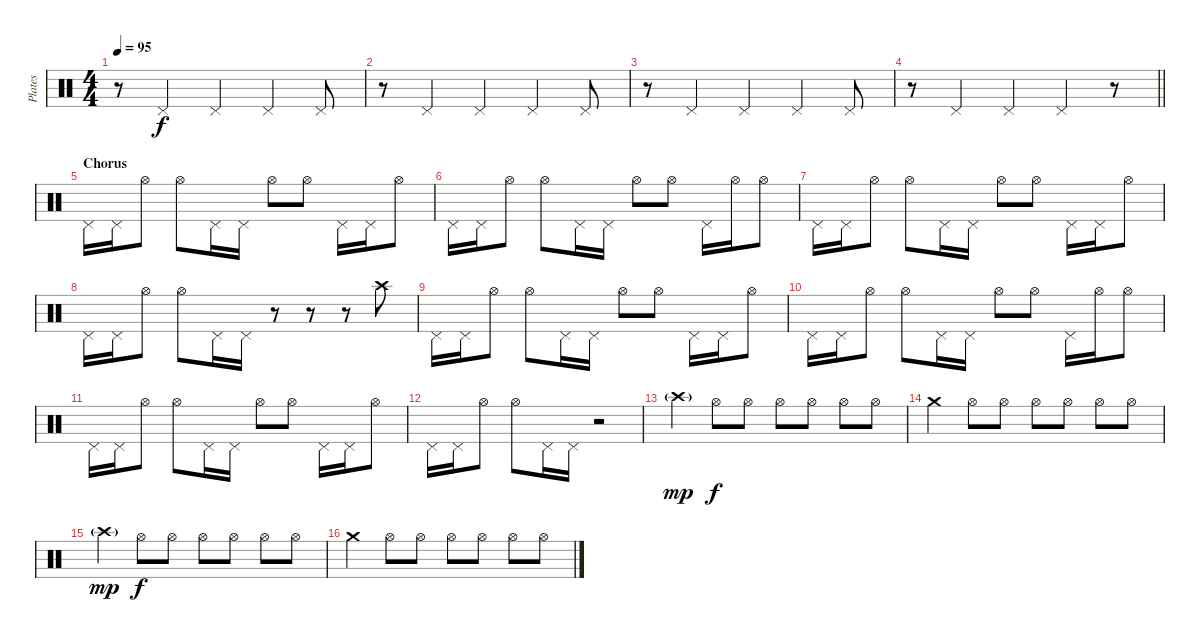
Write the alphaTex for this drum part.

\track ("Plates" "Plates") {instrument percussion}
\staff {score}
\articulation defaults
\ts (4 4)
\tempo 95
\clef neutral
\ks c
r.8{dy f} "Pedal Hi-Hat (hit)".4 "Pedal Hi-Hat (hit)".4 "Pedal Hi-Hat (hit)".4 "Pedal Hi-Hat (hit)".8 |
r.8 "Pedal Hi-Hat (hit)".4 "Pedal Hi-Hat (hit)".4 "Pedal Hi-Hat (hit)".4 "Pedal Hi-Hat (hit)".8 |
r.8 "Pedal Hi-Hat (hit)".4 "Pedal Hi-Hat (hit)".4 "Pedal Hi-Hat (hit)".4 "Pedal Hi-Hat (hit)".8 |
\barLineRight lightlight
r.8 "Pedal Hi-Hat (hit)".4 "Pedal Hi-Hat (hit)".4 "Pedal Hi-Hat (hit)".4 r.8 |
\section ("" "Chorus")
"Pedal Hi-Hat (hit)".16 "Pedal Hi-Hat (hit)".16 "Hi-Hat (open)".8 "Hi-Hat (open)".8 "Pedal Hi-Hat (hit)".16 "Pedal Hi-Hat (hit)".16 "Hi-Hat (open)".8 "Hi-Hat (open)".8 "Pedal Hi-Hat (hit)".16 "Pedal Hi-Hat (hit)".16 "Hi-Hat (open)".8 |
"Pedal Hi-Hat (hit)".16 "Pedal Hi-Hat (hit)".16 "Hi-Hat (open)".8 "Hi-Hat (open)".8 "Pedal Hi-Hat (hit)".16 "Pedal Hi-Hat (hit)".16 "Hi-Hat (open)".8 "Hi-Hat (open)".8 "Pedal Hi-Hat (hit)".16 "Hi-Hat (open)".16 "Hi-Hat (open)".8 |
"Pedal Hi-Hat (hit)".16 "Pedal Hi-Hat (hit)".16 "Hi-Hat (open)".8 "Hi-Hat (open)".8 "Pedal Hi-Hat (hit)".16 "Pedal Hi-Hat (hit)".16 "Hi-Hat (open)".8 "Hi-Hat (open)".8 "Pedal Hi-Hat (hit)".16 "Pedal Hi-Hat (hit)".16 "Hi-Hat (open)".8 |
"Pedal Hi-Hat (hit)".16 "Pedal Hi-Hat (hit)".16 "Hi-Hat (open)".8 "Hi-Hat (open)".8 "Pedal Hi-Hat (hit)".16 "Pedal Hi-Hat (hit)".16 r.8 r.8 r.8 "Crash high (hit)".8 |
"Pedal Hi-Hat (hit)".16 "Pedal Hi-Hat (hit)".16 "Hi-Hat (open)".8 "Hi-Hat (open)".8 "Pedal Hi-Hat (hit)".16 "Pedal Hi-Hat (hit)".16 "Hi-Hat (open)".8 "Hi-Hat (open)".8 "Pedal Hi-Hat (hit)".16 "Pedal Hi-Hat (hit)".16 "Hi-Hat (open)".8 |
"Pedal Hi-Hat (hit)".16 "Pedal Hi-Hat (hit)".16 "Hi-Hat (open)".8 "Hi-Hat (open)".8 "Pedal Hi-Hat (hit)".16 "Pedal Hi-Hat (hit)".16 "Hi-Hat (open)".8 "Hi-Hat (open)".8 "Pedal Hi-Hat (hit)".16 "Hi-Hat (open)".16 "Hi-Hat (open)".8 |
"Pedal Hi-Hat (hit)".16 "Pedal Hi-Hat (hit)".16 "Hi-Hat (open)".8 "Hi-Hat (open)".8 "Pedal Hi-Hat (hit)".16 "Pedal Hi-Hat (hit)".16 "Hi-Hat (open)".8 "Hi-Hat (open)".8 "Pedal Hi-Hat (hit)".16 "Pedal Hi-Hat (hit)".16 "Hi-Hat (open)".8 |
"Pedal Hi-Hat (hit)".16 "Pedal Hi-Hat (hit)".16 "Hi-Hat (open)".8 "Hi-Hat (open)".8 "Pedal Hi-Hat (hit)".16 "Pedal Hi-Hat (hit)".16 r.2 |
"Crash high (hit)"{g}.4{dy mp} "Hi-Hat (open)".8{dy f} "Hi-Hat (open)".8 "Hi-Hat (open)".8 "Hi-Hat (open)".8 "Hi-Hat (open)".8 "Hi-Hat (open)".8 |
"Crash medium (hit)".4 "Hi-Hat (open)".8 "Hi-Hat (open)".8 "Hi-Hat (open)".8 "Hi-Hat (open)".8 "Hi-Hat (open)".8 "Hi-Hat (open)".8 |
"Crash high (hit)"{g}.4{dy mp} "Hi-Hat (open)".8{dy f} "Hi-Hat (open)".8 "Hi-Hat (open)".8 "Hi-Hat (open)".8 "Hi-Hat (open)".8 "Hi-Hat (open)".8 |
"Crash medium (hit)".4 "Hi-Hat (open)".8 "Hi-Hat (open)".8 "Hi-Hat (open)".8 "Hi-Hat (open)".8 "Hi-Hat (open)".8 "Hi-Hat (open)".8
